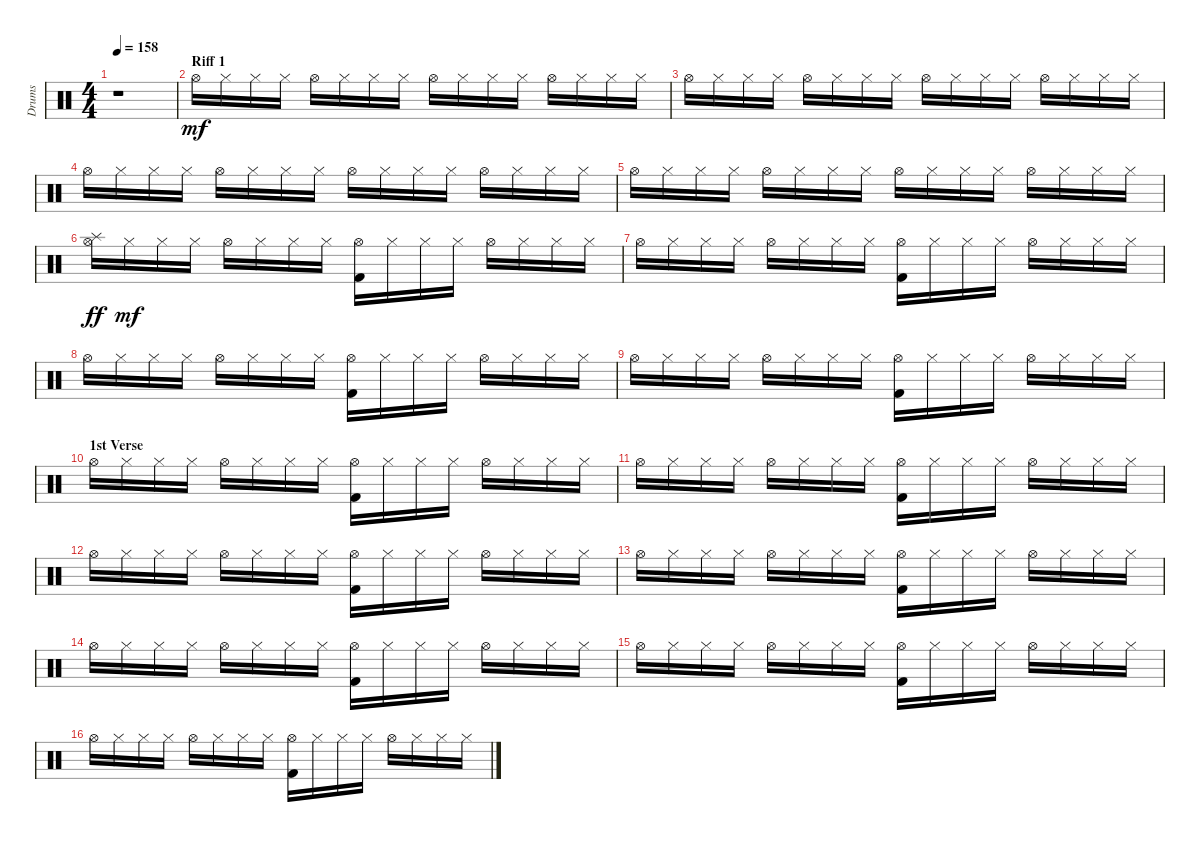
\track ("Drums" "Drums") {instrument percussion}
\staff {score}
\articulation defaults
\ts (4 4)
\tempo 158
\clef neutral
\ks c
r.1{dy mf} |
\section ("" "Riff 1")
"Hi-Hat (open)".16 "Hi-Hat (closed)".16 "Hi-Hat (closed)".16 "Hi-Hat (closed)".16 "Hi-Hat (open)".16 "Hi-Hat (closed)".16 "Hi-Hat (closed)".16 "Hi-Hat (closed)".16 "Hi-Hat (open)".16 "Hi-Hat (closed)".16 "Hi-Hat (closed)".16 "Hi-Hat (closed)".16 "Hi-Hat (open)".16 "Hi-Hat (closed)".16 "Hi-Hat (closed)".16 "Hi-Hat (closed)".16 |
"Hi-Hat (open)".16 "Hi-Hat (closed)".16 "Hi-Hat (closed)".16 "Hi-Hat (closed)".16 "Hi-Hat (open)".16 "Hi-Hat (closed)".16 "Hi-Hat (closed)".16 "Hi-Hat (closed)".16 "Hi-Hat (open)".16 "Hi-Hat (closed)".16 "Hi-Hat (closed)".16 "Hi-Hat (closed)".16 "Hi-Hat (open)".16 "Hi-Hat (closed)".16 "Hi-Hat (closed)".16 "Hi-Hat (closed)".16 |
"Hi-Hat (open)".16 "Hi-Hat (closed)".16 "Hi-Hat (closed)".16 "Hi-Hat (closed)".16 "Hi-Hat (open)".16 "Hi-Hat (closed)".16 "Hi-Hat (closed)".16 "Hi-Hat (closed)".16 "Hi-Hat (open)".16 "Hi-Hat (closed)".16 "Hi-Hat (closed)".16 "Hi-Hat (closed)".16 "Hi-Hat (open)".16 "Hi-Hat (closed)".16 "Hi-Hat (closed)".16 "Hi-Hat (closed)".16 |
"Hi-Hat (open)".16 "Hi-Hat (closed)".16 "Hi-Hat (closed)".16 "Hi-Hat (closed)".16 "Hi-Hat (open)".16 "Hi-Hat (closed)".16 "Hi-Hat (closed)".16 "Hi-Hat (closed)".16 "Hi-Hat (open)".16 "Hi-Hat (closed)".16 "Hi-Hat (closed)".16 "Hi-Hat (closed)".16 "Hi-Hat (open)".16 "Hi-Hat (closed)".16 "Hi-Hat (closed)".16 "Hi-Hat (closed)".16 |
("Hi-Hat (open)" "Splash (hit)").16{dy ff} "Hi-Hat (closed)".16{dy mf} "Hi-Hat (closed)".16 "Hi-Hat (closed)".16 "Hi-Hat (open)".16 "Hi-Hat (closed)".16 "Hi-Hat (closed)".16 "Hi-Hat (closed)".16 ("Kick (hit) 2" "Hi-Hat (open)").16 "Hi-Hat (closed)".16 "Hi-Hat (closed)".16 "Hi-Hat (closed)".16 "Hi-Hat (open)".16 "Hi-Hat (closed)".16 "Hi-Hat (closed)".16 "Hi-Hat (closed)".16 |
"Hi-Hat (open)".16 "Hi-Hat (closed)".16 "Hi-Hat (closed)".16 "Hi-Hat (closed)".16 "Hi-Hat (open)".16 "Hi-Hat (closed)".16 "Hi-Hat (closed)".16 "Hi-Hat (closed)".16 ("Kick (hit) 2" "Hi-Hat (open)").16 "Hi-Hat (closed)".16 "Hi-Hat (closed)".16 "Hi-Hat (closed)".16 "Hi-Hat (open)".16 "Hi-Hat (closed)".16 "Hi-Hat (closed)".16 "Hi-Hat (closed)".16 |
"Hi-Hat (open)".16 "Hi-Hat (closed)".16 "Hi-Hat (closed)".16 "Hi-Hat (closed)".16 "Hi-Hat (open)".16 "Hi-Hat (closed)".16 "Hi-Hat (closed)".16 "Hi-Hat (closed)".16 ("Kick (hit) 2" "Hi-Hat (open)").16 "Hi-Hat (closed)".16 "Hi-Hat (closed)".16 "Hi-Hat (closed)".16 "Hi-Hat (open)".16 "Hi-Hat (closed)".16 "Hi-Hat (closed)".16 "Hi-Hat (closed)".16 |
"Hi-Hat (open)".16 "Hi-Hat (closed)".16 "Hi-Hat (closed)".16 "Hi-Hat (closed)".16 "Hi-Hat (open)".16 "Hi-Hat (closed)".16 "Hi-Hat (closed)".16 "Hi-Hat (closed)".16 ("Kick (hit) 2" "Hi-Hat (open)").16 "Hi-Hat (closed)".16 "Hi-Hat (closed)".16 "Hi-Hat (closed)".16 "Hi-Hat (open)".16 "Hi-Hat (closed)".16 "Hi-Hat (closed)".16 "Hi-Hat (closed)".16 |
\section ("" "1st Verse")
"Hi-Hat (open)".16 "Hi-Hat (closed)".16 "Hi-Hat (closed)".16 "Hi-Hat (closed)".16 "Hi-Hat (open)".16 "Hi-Hat (closed)".16 "Hi-Hat (closed)".16 "Hi-Hat (closed)".16 ("Kick (hit) 2" "Hi-Hat (open)").16 "Hi-Hat (closed)".16 "Hi-Hat (closed)".16 "Hi-Hat (closed)".16 "Hi-Hat (open)".16 "Hi-Hat (closed)".16 "Hi-Hat (closed)".16 "Hi-Hat (closed)".16 |
"Hi-Hat (open)".16 "Hi-Hat (closed)".16 "Hi-Hat (closed)".16 "Hi-Hat (closed)".16 "Hi-Hat (open)".16 "Hi-Hat (closed)".16 "Hi-Hat (closed)".16 "Hi-Hat (closed)".16 ("Kick (hit) 2" "Hi-Hat (open)").16 "Hi-Hat (closed)".16 "Hi-Hat (closed)".16 "Hi-Hat (closed)".16 "Hi-Hat (open)".16 "Hi-Hat (closed)".16 "Hi-Hat (closed)".16 "Hi-Hat (closed)".16 |
"Hi-Hat (open)".16 "Hi-Hat (closed)".16 "Hi-Hat (closed)".16 "Hi-Hat (closed)".16 "Hi-Hat (open)".16 "Hi-Hat (closed)".16 "Hi-Hat (closed)".16 "Hi-Hat (closed)".16 ("Kick (hit) 2" "Hi-Hat (open)").16 "Hi-Hat (closed)".16 "Hi-Hat (closed)".16 "Hi-Hat (closed)".16 "Hi-Hat (open)".16 "Hi-Hat (closed)".16 "Hi-Hat (closed)".16 "Hi-Hat (closed)".16 |
"Hi-Hat (open)".16 "Hi-Hat (closed)".16 "Hi-Hat (closed)".16 "Hi-Hat (closed)".16 "Hi-Hat (open)".16 "Hi-Hat (closed)".16 "Hi-Hat (closed)".16 "Hi-Hat (closed)".16 ("Kick (hit) 2" "Hi-Hat (open)").16 "Hi-Hat (closed)".16 "Hi-Hat (closed)".16 "Hi-Hat (closed)".16 "Hi-Hat (open)".16 "Hi-Hat (closed)".16 "Hi-Hat (closed)".16 "Hi-Hat (closed)".16 |
"Hi-Hat (open)".16 "Hi-Hat (closed)".16 "Hi-Hat (closed)".16 "Hi-Hat (closed)".16 "Hi-Hat (open)".16 "Hi-Hat (closed)".16 "Hi-Hat (closed)".16 "Hi-Hat (closed)".16 ("Kick (hit) 2" "Hi-Hat (open)").16 "Hi-Hat (closed)".16 "Hi-Hat (closed)".16 "Hi-Hat (closed)".16 "Hi-Hat (open)".16 "Hi-Hat (closed)".16 "Hi-Hat (closed)".16 "Hi-Hat (closed)".16 |
"Hi-Hat (open)".16 "Hi-Hat (closed)".16 "Hi-Hat (closed)".16 "Hi-Hat (closed)".16 "Hi-Hat (open)".16 "Hi-Hat (closed)".16 "Hi-Hat (closed)".16 "Hi-Hat (closed)".16 ("Kick (hit) 2" "Hi-Hat (open)").16 "Hi-Hat (closed)".16 "Hi-Hat (closed)".16 "Hi-Hat (closed)".16 "Hi-Hat (open)".16 "Hi-Hat (closed)".16 "Hi-Hat (closed)".16 "Hi-Hat (closed)".16 |
"Hi-Hat (open)".16 "Hi-Hat (closed)".16 "Hi-Hat (closed)".16 "Hi-Hat (closed)".16 "Hi-Hat (open)".16 "Hi-Hat (closed)".16 "Hi-Hat (closed)".16 "Hi-Hat (closed)".16 ("Kick (hit) 2" "Hi-Hat (open)").16 "Hi-Hat (closed)".16 "Hi-Hat (closed)".16 "Hi-Hat (closed)".16 "Hi-Hat (open)".16 "Hi-Hat (closed)".16 "Hi-Hat (closed)".16 "Hi-Hat (closed)".16
